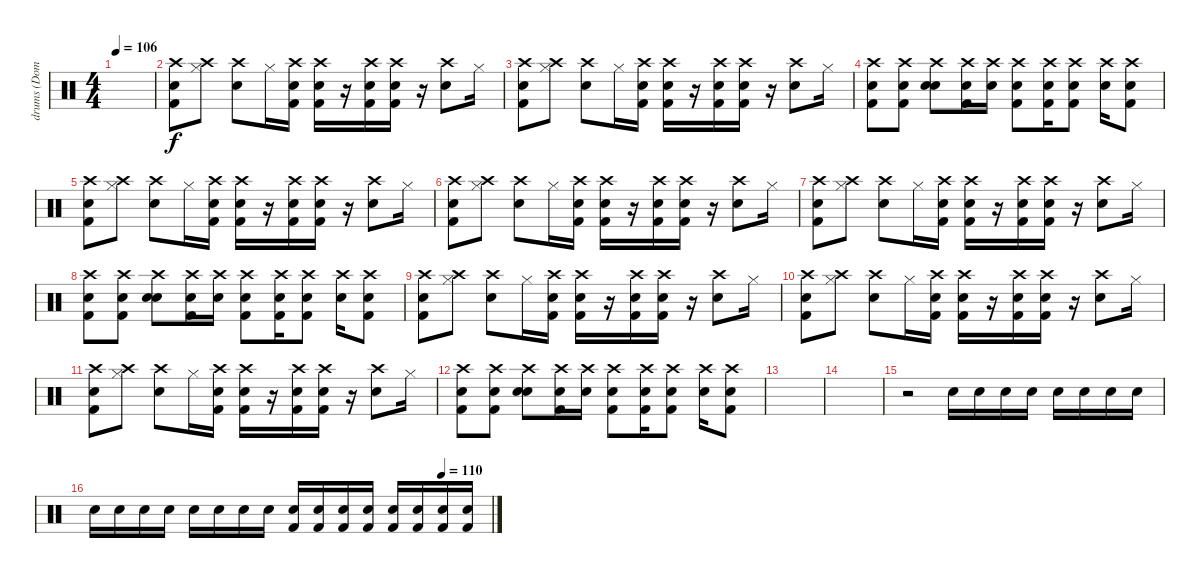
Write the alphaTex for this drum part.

\track ("drums (Dominic howard)" "drums (Dom") {instrument percussion}
\staff {score}
\articulation defaults
\ts (4 4)
\tempo 106
\clef neutral
\ks c
|
("Crash high (hit)" "Kick (hit) 2" "Snare (hit) 2").8 ("Crash high (hit)" "Hi-Hat (closed)").8 ("Crash high (hit)" "Electric Snare (hit)").8 "Hi-Hat (closed)".16 ("Crash high (hit)" "Kick (hit) 2" "Snare (hit) 2").16 ("Crash high (hit)" "Kick (hit) 2" "Snare (hit) 2").16 r.16 ("Crash high (hit)" "Kick (hit) 2" "Snare (hit) 2").16 ("Crash high (hit)" "Kick (hit) 2" "Snare (hit) 2").16 r.16 ("Crash high (hit)" "Electric Snare (hit)").8 "Hi-Hat (closed)".16 |
("Crash high (hit)" "Kick (hit) 2" "Snare (hit) 2").8 ("Crash high (hit)" "Hi-Hat (closed)").8 ("Crash high (hit)" "Electric Snare (hit)").8 "Hi-Hat (closed)".16 ("Crash high (hit)" "Kick (hit) 2" "Snare (hit) 2").16 ("Crash high (hit)" "Kick (hit) 2" "Snare (hit) 2").16 r.16 ("Crash high (hit)" "Kick (hit) 2" "Snare (hit) 2").16 ("Crash high (hit)" "Kick (hit) 2" "Snare (hit) 2").16 r.16 ("Crash high (hit)" "Electric Snare (hit)").8 "Hi-Hat (closed)".16 |
("Crash high (hit)" "Kick (hit) 2" "Snare (hit) 2").8 ("Crash high (hit)" "Kick (hit) 2" "Snare (hit) 2").8 ("Crash high (hit)" "Electric Snare (hit)" "Electric Snare (hit)").8 ("Crash high (hit)" "Kick (hit) 2" "Snare (hit) 2").16 ("Crash high (hit)" "Electric Snare (hit)").16 ("Crash high (hit)" "Kick (hit) 2" "Snare (hit) 2").8 ("Crash high (hit)" "Kick (hit) 2" "Snare (hit) 2").16 ("Crash high (hit)" "Kick (hit) 2" "Snare (hit) 2").8 ("Crash high (hit)" "Electric Snare (hit)").16 ("Crash high (hit)" "Kick (hit) 2" "Snare (hit) 2").8 |
("Crash high (hit)" "Kick (hit) 2" "Snare (hit) 2").8 ("Crash high (hit)" "Hi-Hat (closed)").8 ("Crash high (hit)" "Electric Snare (hit)").8 "Hi-Hat (closed)".16 ("Crash high (hit)" "Kick (hit) 2" "Snare (hit) 2").16 ("Crash high (hit)" "Kick (hit) 2" "Snare (hit) 2").16 r.16 ("Crash high (hit)" "Kick (hit) 2" "Snare (hit) 2").16 ("Crash high (hit)" "Kick (hit) 2" "Snare (hit) 2").16 r.16 ("Crash high (hit)" "Electric Snare (hit)").8 "Hi-Hat (closed)".16 |
("Crash high (hit)" "Kick (hit) 2" "Snare (hit) 2").8 ("Crash high (hit)" "Hi-Hat (closed)").8 ("Crash high (hit)" "Electric Snare (hit)").8 "Hi-Hat (closed)".16 ("Crash high (hit)" "Kick (hit) 2" "Snare (hit) 2").16 ("Crash high (hit)" "Kick (hit) 2" "Snare (hit) 2").16 r.16 ("Crash high (hit)" "Kick (hit) 2" "Snare (hit) 2").16 ("Crash high (hit)" "Kick (hit) 2" "Snare (hit) 2").16 r.16 ("Crash high (hit)" "Electric Snare (hit)").8 "Hi-Hat (closed)".16 |
("Crash high (hit)" "Kick (hit) 2" "Snare (hit) 2").8 ("Crash high (hit)" "Hi-Hat (closed)").8 ("Crash high (hit)" "Electric Snare (hit)").8 "Hi-Hat (closed)".16 ("Crash high (hit)" "Kick (hit) 2" "Snare (hit) 2").16 ("Crash high (hit)" "Kick (hit) 2" "Snare (hit) 2").16 r.16 ("Crash high (hit)" "Kick (hit) 2" "Snare (hit) 2").16 ("Crash high (hit)" "Kick (hit) 2" "Snare (hit) 2").16 r.16 ("Crash high (hit)" "Electric Snare (hit)").8 "Hi-Hat (closed)".16 |
("Crash high (hit)" "Kick (hit) 2" "Snare (hit) 2").8 ("Crash high (hit)" "Kick (hit) 2" "Snare (hit) 2").8 ("Crash high (hit)" "Electric Snare (hit)" "Electric Snare (hit)").8 ("Crash high (hit)" "Kick (hit) 2" "Snare (hit) 2").16 ("Crash high (hit)" "Electric Snare (hit)").16 ("Crash high (hit)" "Kick (hit) 2" "Snare (hit) 2").8 ("Crash high (hit)" "Kick (hit) 2" "Snare (hit) 2").16 ("Crash high (hit)" "Kick (hit) 2" "Snare (hit) 2").8 ("Crash high (hit)" "Electric Snare (hit)").16 ("Crash high (hit)" "Kick (hit) 2" "Snare (hit) 2").8 |
("Crash high (hit)" "Kick (hit) 2" "Snare (hit) 2").8 ("Crash high (hit)" "Hi-Hat (closed)").8 ("Crash high (hit)" "Electric Snare (hit)").8 "Hi-Hat (closed)".16 ("Crash high (hit)" "Kick (hit) 2" "Snare (hit) 2").16 ("Crash high (hit)" "Kick (hit) 2" "Snare (hit) 2").16 r.16 ("Crash high (hit)" "Kick (hit) 2" "Snare (hit) 2").16 ("Crash high (hit)" "Kick (hit) 2" "Snare (hit) 2").16 r.16 ("Crash high (hit)" "Electric Snare (hit)").8 "Hi-Hat (closed)".16 |
("Crash high (hit)" "Kick (hit) 2" "Snare (hit) 2").8 ("Crash high (hit)" "Hi-Hat (closed)").8 ("Crash high (hit)" "Electric Snare (hit)").8 "Hi-Hat (closed)".16 ("Crash high (hit)" "Kick (hit) 2" "Snare (hit) 2").16 ("Crash high (hit)" "Kick (hit) 2" "Snare (hit) 2").16 r.16 ("Crash high (hit)" "Kick (hit) 2" "Snare (hit) 2").16 ("Crash high (hit)" "Kick (hit) 2" "Snare (hit) 2").16 r.16 ("Crash high (hit)" "Electric Snare (hit)").8 "Hi-Hat (closed)".16 |
("Crash high (hit)" "Kick (hit) 2" "Snare (hit) 2").8 ("Crash high (hit)" "Hi-Hat (closed)").8 ("Crash high (hit)" "Electric Snare (hit)").8 "Hi-Hat (closed)".16 ("Crash high (hit)" "Kick (hit) 2" "Snare (hit) 2").16 ("Crash high (hit)" "Kick (hit) 2" "Snare (hit) 2").16 r.16 ("Crash high (hit)" "Kick (hit) 2" "Snare (hit) 2").16 ("Crash high (hit)" "Kick (hit) 2" "Snare (hit) 2").16 r.16 ("Crash high (hit)" "Electric Snare (hit)").8 "Hi-Hat (closed)".16 |
("Crash high (hit)" "Kick (hit) 2" "Snare (hit) 2").8 ("Crash high (hit)" "Kick (hit) 2" "Snare (hit) 2").8 ("Crash high (hit)" "Electric Snare (hit)" "Electric Snare (hit)").8 ("Crash high (hit)" "Kick (hit) 2" "Snare (hit) 2").16 ("Crash high (hit)" "Electric Snare (hit)").16 ("Crash high (hit)" "Kick (hit) 2" "Snare (hit) 2").8 ("Crash high (hit)" "Kick (hit) 2" "Snare (hit) 2").16 ("Crash high (hit)" "Kick (hit) 2" "Snare (hit) 2").8 ("Crash high (hit)" "Electric Snare (hit)").16 ("Crash high (hit)" "Kick (hit) 2" "Snare (hit) 2").8 |
|
|
r.2 "Snare (hit) 2".16{volume 4} "Snare (hit) 2".16 "Snare (hit) 2".16 "Snare (hit) 2".16 "Snare (hit) 2".16 "Snare (hit) 2".16 "Snare (hit) 2".16 "Snare (hit) 2".16 |
\tempo (110 0.875)
"Snare (hit) 2".16{volume 6} "Snare (hit) 2".16 "Snare (hit) 2".16 "Snare (hit) 2".16 "Snare (hit) 2".16 "Snare (hit) 2".16 "Snare (hit) 2".16 "Snare (hit) 2".16 ("Kick (hit) 2" "Snare (hit) 2").16{volume 8} ("Kick (hit) 2" "Snare (hit) 2").16 ("Kick (hit) 2" "Snare (hit) 2").16 ("Kick (hit) 2" "Snare (hit) 2").16 ("Kick (hit) 2" "Snare (hit) 2").16 ("Kick (hit) 2" "Snare (hit) 2").16 ("Kick (hit) 2" "Snare (hit) 2").16{volume 10} ("Kick (hit) 2" "Snare (hit) 2").16
